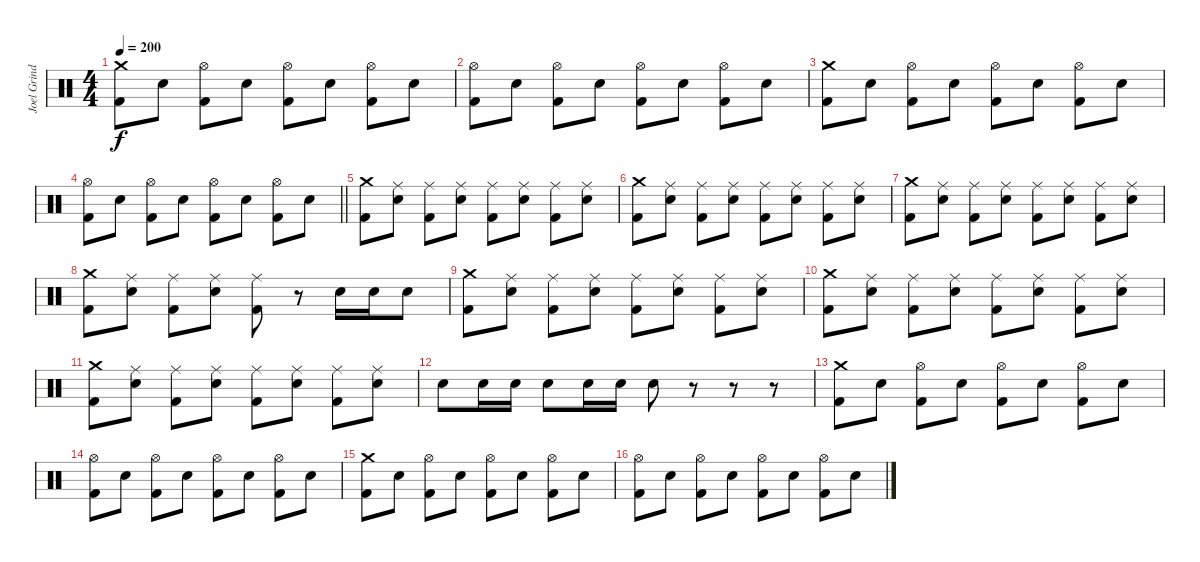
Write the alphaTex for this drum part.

\track ("Joel Grind (drums)" "Joel Grind") {instrument percussion}
\staff {score}
\articulation defaults
\ts (4 4)
\tempo 200
\clef neutral
\ks c
("Crash medium (hit)" "Kick (hit) 2").8{dy f} "Snare (hit) 2".8 ("Hi-Hat (open)" "Kick (hit) 2").8 "Snare (hit) 2".8 ("Hi-Hat (open)" "Kick (hit) 2").8 "Snare (hit) 2".8 ("Hi-Hat (open)" "Kick (hit) 2").8 "Snare (hit) 2".8 |
("Hi-Hat (open)" "Kick (hit) 2").8 "Snare (hit) 2".8 ("Hi-Hat (open)" "Kick (hit) 2").8 "Snare (hit) 2".8 ("Hi-Hat (open)" "Kick (hit) 2").8 "Snare (hit) 2".8 ("Hi-Hat (open)" "Kick (hit) 2").8 "Snare (hit) 2".8 |
("Crash medium (hit)" "Kick (hit) 2").8 "Snare (hit) 2".8 ("Hi-Hat (open)" "Kick (hit) 2").8 "Snare (hit) 2".8 ("Hi-Hat (open)" "Kick (hit) 2").8 "Snare (hit) 2".8 ("Hi-Hat (open)" "Kick (hit) 2").8 "Snare (hit) 2".8 |
\barLineRight lightlight
("Hi-Hat (open)" "Kick (hit) 2").8 "Snare (hit) 2".8 ("Hi-Hat (open)" "Kick (hit) 2").8 "Snare (hit) 2".8 ("Hi-Hat (open)" "Kick (hit) 2").8 "Snare (hit) 2".8 ("Hi-Hat (open)" "Kick (hit) 2").8 "Snare (hit) 2".8 |
("Crash medium (hit)" "Kick (hit) 2").8 ("Ride (middle)" "Snare (hit) 2").8 ("Ride (middle)" "Kick (hit) 2").8 ("Ride (middle)" "Snare (hit) 2").8 ("Ride (middle)" "Kick (hit) 2").8 ("Ride (middle)" "Snare (hit) 2").8 ("Ride (middle)" "Kick (hit) 2").8 ("Ride (middle)" "Snare (hit) 2").8 |
("Crash medium (hit)" "Kick (hit) 2").8 ("Ride (middle)" "Snare (hit) 2").8 ("Ride (middle)" "Kick (hit) 2").8 ("Ride (middle)" "Snare (hit) 2").8 ("Ride (middle)" "Kick (hit) 2").8 ("Ride (middle)" "Snare (hit) 2").8 ("Ride (middle)" "Kick (hit) 2").8 ("Ride (middle)" "Snare (hit) 2").8 |
("Crash medium (hit)" "Kick (hit) 2").8 ("Ride (middle)" "Snare (hit) 2").8 ("Ride (middle)" "Kick (hit) 2").8 ("Ride (middle)" "Snare (hit) 2").8 ("Ride (middle)" "Kick (hit) 2").8 ("Ride (middle)" "Snare (hit) 2").8 ("Ride (middle)" "Kick (hit) 2").8 ("Ride (middle)" "Snare (hit) 2").8 |
("Crash medium (hit)" "Kick (hit) 2").8 ("Ride (middle)" "Snare (hit) 2").8 ("Ride (middle)" "Kick (hit) 2").8 ("Ride (middle)" "Snare (hit) 2").8 ("Ride (middle)" "Kick (hit) 2").8 r.8 "Snare (hit) 2".16 "Snare (hit) 2".16 "Snare (hit) 2".8 |
("Crash medium (hit)" "Kick (hit) 2").8 ("Ride (middle)" "Snare (hit) 2").8 ("Ride (middle)" "Kick (hit) 2").8 ("Ride (middle)" "Snare (hit) 2").8 ("Ride (middle)" "Kick (hit) 2").8 ("Ride (middle)" "Snare (hit) 2").8 ("Ride (middle)" "Kick (hit) 2").8 ("Ride (middle)" "Snare (hit) 2").8 |
("Crash medium (hit)" "Kick (hit) 2").8 ("Ride (middle)" "Snare (hit) 2").8 ("Ride (middle)" "Kick (hit) 2").8 ("Ride (middle)" "Snare (hit) 2").8 ("Ride (middle)" "Kick (hit) 2").8 ("Ride (middle)" "Snare (hit) 2").8 ("Ride (middle)" "Kick (hit) 2").8 ("Ride (middle)" "Snare (hit) 2").8 |
("Crash medium (hit)" "Kick (hit) 2").8 ("Ride (middle)" "Snare (hit) 2").8 ("Ride (middle)" "Kick (hit) 2").8 ("Ride (middle)" "Snare (hit) 2").8 ("Ride (middle)" "Kick (hit) 2").8 ("Ride (middle)" "Snare (hit) 2").8 ("Ride (middle)" "Kick (hit) 2").8 ("Ride (middle)" "Snare (hit) 2").8 |
"Snare (hit) 2".8 "Snare (hit) 2".16 "Snare (hit) 2".16 "Snare (hit) 2".8 "Snare (hit) 2".16 "Snare (hit) 2".16 "Snare (hit) 2".8 r.8 r.8 r.8 |
("Crash medium (hit)" "Kick (hit) 2").8 "Snare (hit) 2".8 ("Hi-Hat (open)" "Kick (hit) 2").8 "Snare (hit) 2".8 ("Hi-Hat (open)" "Kick (hit) 2").8 "Snare (hit) 2".8 ("Hi-Hat (open)" "Kick (hit) 2").8 "Snare (hit) 2".8 |
("Hi-Hat (open)" "Kick (hit) 2").8 "Snare (hit) 2".8 ("Hi-Hat (open)" "Kick (hit) 2").8 "Snare (hit) 2".8 ("Hi-Hat (open)" "Kick (hit) 2").8 "Snare (hit) 2".8 ("Hi-Hat (open)" "Kick (hit) 2").8 "Snare (hit) 2".8 |
("Crash medium (hit)" "Kick (hit) 2").8 "Snare (hit) 2".8 ("Hi-Hat (open)" "Kick (hit) 2").8 "Snare (hit) 2".8 ("Hi-Hat (open)" "Kick (hit) 2").8 "Snare (hit) 2".8 ("Hi-Hat (open)" "Kick (hit) 2").8 "Snare (hit) 2".8 |
("Hi-Hat (open)" "Kick (hit) 2").8 "Snare (hit) 2".8 ("Hi-Hat (open)" "Kick (hit) 2").8 "Snare (hit) 2".8 ("Hi-Hat (open)" "Kick (hit) 2").8 "Snare (hit) 2".8 ("Hi-Hat (open)" "Kick (hit) 2").8 "Snare (hit) 2".8
